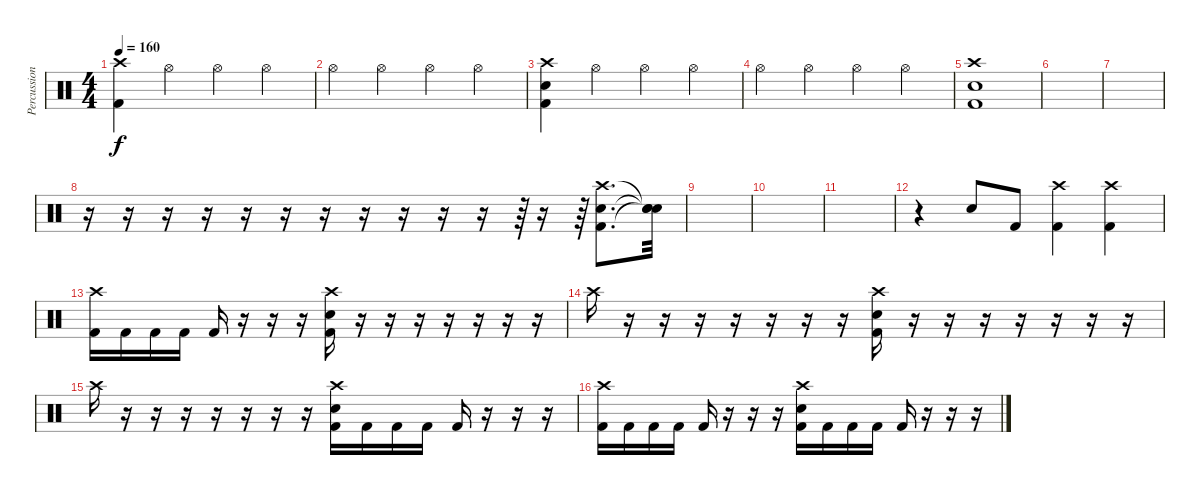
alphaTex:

\track ("Percussion" "Percussion") {instrument percussion}
\staff {score}
\articulation defaults
\ts (4 4)
\tempo 160
\clef neutral
\ks c
("Crash high (hit)" "Kick (hit) 2").4{dy f} "Hi-Hat (open)".4 "Hi-Hat (open)".4 "Hi-Hat (open)".4 |
"Hi-Hat (open)".4 "Hi-Hat (open)".4 "Hi-Hat (open)".4 "Hi-Hat (open)".4 |
("Crash high (hit)" "Snare (hit) 2" "Kick (hit) 2").4 "Hi-Hat (open)".4 "Hi-Hat (open)".4 "Hi-Hat (open)".4 |
"Hi-Hat (open)".4 "Hi-Hat (open)".4 "Hi-Hat (open)".4 "Hi-Hat (open)".4 |
("Crash high (hit)" "Snare (hit) 2" "Kick (hit) 2").1 |
|
|
r.16 r.16 r.16 r.16 r.16 r.16 r.16 r.16 r.16 r.16 r.16 r.64 r.16 r.64 ("Crash high (hit)" "Snare (hit) 2" "Kick (hit) 2").8{d} ("Snare (hit)"{t} "Snare (hit)"{t} "Snare (hit)"{t}).32 |
|
|
|
r.4 "Snare (hit) 2".8 "Kick (hit) 2".8 ("Crash high (hit)" "Kick (hit) 2").4 ("Crash high (hit)" "Kick (hit) 2").4 |
("Crash high (hit)" "Kick (hit) 2").16 "Kick (hit) 2".16 "Kick (hit) 2".16 "Kick (hit) 2".16 "Kick (hit) 2".16 r.16 r.16 r.16 ("Crash high (hit)" "Snare (hit) 2" "Kick (hit) 2").16 r.16 r.16 r.16 r.16 r.16 r.16 r.16 |
"Crash high (hit)".16 r.16 r.16 r.16 r.16 r.16 r.16 r.16 ("Crash high (hit)" "Snare (hit) 2" "Kick (hit) 2").16 r.16 r.16 r.16 r.16 r.16 r.16 r.16 |
"Crash high (hit)".16 r.16 r.16 r.16 r.16 r.16 r.16 r.16 ("Crash high (hit)" "Snare (hit) 2" "Kick (hit) 2").16 "Kick (hit) 2".16 "Kick (hit) 2".16 "Kick (hit) 2".16 "Kick (hit) 2".16 r.16 r.16 r.16 |
("Crash high (hit)" "Kick (hit) 2").16 "Kick (hit) 2".16 "Kick (hit) 2".16 "Kick (hit) 2".16 "Kick (hit) 2".16 r.16 r.16 r.16 ("Crash high (hit)" "Snare (hit) 2" "Kick (hit) 2").16 "Kick (hit) 2".16 "Kick (hit) 2".16 "Kick (hit) 2".16 "Kick (hit) 2".16 r.16 r.16 r.16
